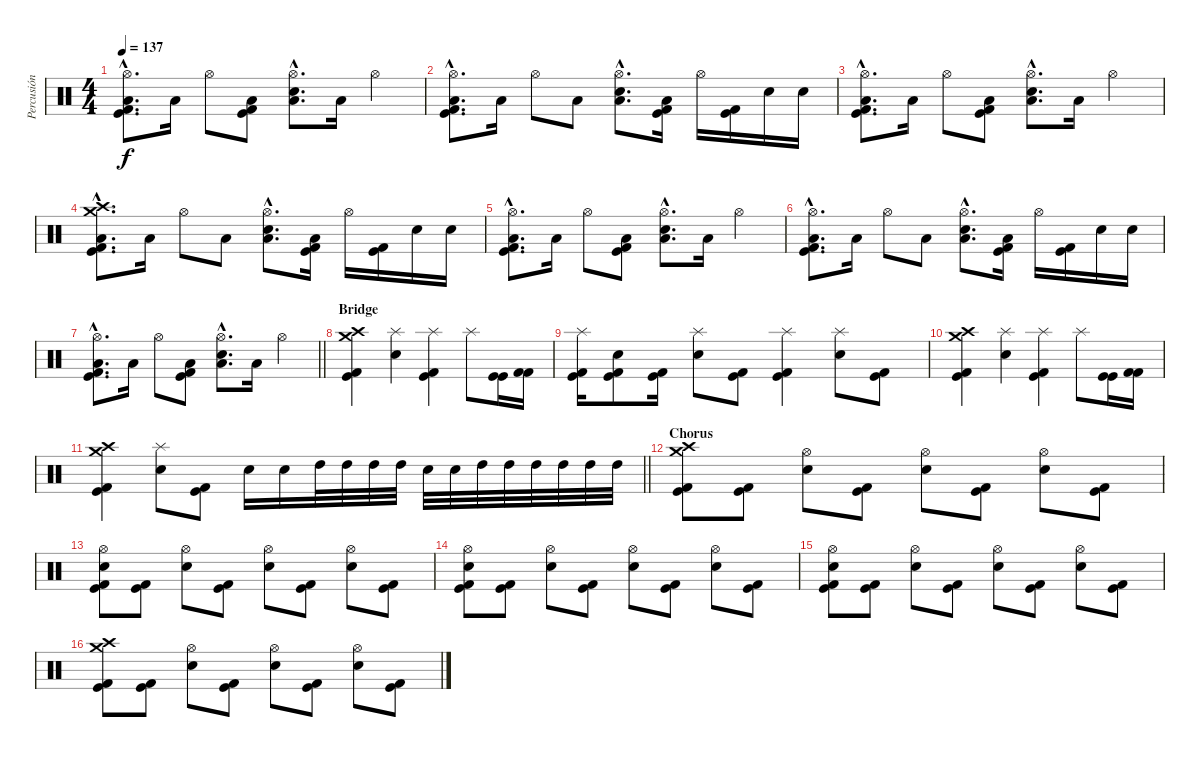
\track ("Percusión" "Percusión") {instrument percussion}
\staff {score}
\articulation defaults
\ts (4 4)
\tempo 137
\clef neutral
\ks c
("Hi-Hat (open)"{hac} "Low Floor Tom (hit)"{hac} "Kick (hit) 2"{hac} "Kick (hit)"{hac}).8{d dy f} "Low Floor Tom (hit)".16 "Hi-Hat (open)".8 ("Low Floor Tom (hit)" "Kick (hit)" "Kick (hit) 2").8 ("Hi-Hat (open)"{hac} "Electric Snare (hit)"{hac} "Low Floor Tom (hit)"{hac}).8{d} "Low Floor Tom (hit)".16 "Hi-Hat (open)".4 |
("Hi-Hat (open)"{hac} "Low Floor Tom (hit)"{hac} "Kick (hit) 2"{hac} "Kick (hit)"{hac}).8{d} "Low Floor Tom (hit)".16 "Hi-Hat (open)".8 "Low Floor Tom (hit)".8 ("Hi-Hat (open)"{hac} "Electric Snare (hit)"{hac} "Low Floor Tom (hit)"{hac}).8{d} ("Low Floor Tom (hit)" "Kick (hit)" "Kick (hit) 2").16 "Hi-Hat (open)".16 ("Kick (hit) 2" "Kick (hit)").16 "Electric Snare (hit)".16 "Electric Snare (hit)".16 |
("Hi-Hat (open)"{hac} "Low Floor Tom (hit)"{hac} "Kick (hit) 2"{hac} "Kick (hit)"{hac}).8{d} "Low Floor Tom (hit)".16 "Hi-Hat (open)".8 ("Low Floor Tom (hit)" "Kick (hit)" "Kick (hit) 2").8 ("Hi-Hat (open)"{hac} "Electric Snare (hit)"{hac} "Low Floor Tom (hit)"{hac}).8{d} "Low Floor Tom (hit)".16 "Hi-Hat (open)".4 |
("Crash medium (hit)"{hac} "Crash high (hit)"{hac} "Low Floor Tom (hit)"{hac} "Kick (hit) 2"{hac} "Kick (hit)"{hac}).8{d} "Low Floor Tom (hit)".16 "Hi-Hat (open)".8 "Low Floor Tom (hit)".8 ("Hi-Hat (open)"{hac} "Electric Snare (hit)"{hac} "Low Floor Tom (hit)"{hac}).8{d} ("Low Floor Tom (hit)" "Kick (hit)" "Kick (hit) 2").16 "Hi-Hat (open)".16 ("Kick (hit) 2" "Kick (hit)").16 "Electric Snare (hit)".16 "Electric Snare (hit)".16 |
("Hi-Hat (open)"{hac} "Low Floor Tom (hit)"{hac} "Kick (hit) 2"{hac} "Kick (hit)"{hac}).8{d} "Low Floor Tom (hit)".16 "Hi-Hat (open)".8 ("Low Floor Tom (hit)" "Kick (hit)" "Kick (hit) 2").8 ("Hi-Hat (open)"{hac} "Electric Snare (hit)"{hac} "Low Floor Tom (hit)"{hac}).8{d} "Low Floor Tom (hit)".16 "Hi-Hat (open)".4 |
("Hi-Hat (open)"{hac} "Low Floor Tom (hit)"{hac} "Kick (hit) 2"{hac} "Kick (hit)"{hac}).8{d} "Low Floor Tom (hit)".16 "Hi-Hat (open)".8 "Low Floor Tom (hit)".8 ("Hi-Hat (open)"{hac} "Electric Snare (hit)"{hac} "Low Floor Tom (hit)"{hac}).8{d} ("Low Floor Tom (hit)" "Kick (hit)" "Kick (hit) 2").16 "Hi-Hat (open)".16 ("Kick (hit) 2" "Kick (hit)").16 "Electric Snare (hit)".16 "Electric Snare (hit)".16 |
\barLineRight lightlight
("Hi-Hat (open)"{hac} "Low Floor Tom (hit)"{hac} "Kick (hit) 2"{hac} "Kick (hit)"{hac}).8{d} "Low Floor Tom (hit)".16 "Hi-Hat (open)".8 ("Low Floor Tom (hit)" "Kick (hit)" "Kick (hit) 2").8 ("Hi-Hat (open)"{hac} "Electric Snare (hit)"{hac} "Low Floor Tom (hit)"{hac}).8{d} "Low Floor Tom (hit)".16 "Hi-Hat (open)".4 |
\section ("" "Bridge")
("Crash medium (hit)" "Crash high (hit)" "Kick (hit)" "Kick (hit) 2").4 ("Splash (hit)" "Electric Snare (hit)").4 ("Splash (hit)" "Kick (hit) 2" "Kick (hit)").4 "Splash (hit)".8 ("Kick (hit)" "Kick (hit)").16 ("Kick (hit) 2" "Kick (hit) 2").16 |
("Splash (hit)" "Kick (hit)" "Kick (hit) 2").16 ("Electric Snare (hit)" "Kick (hit) 2" "Kick (hit)").8 ("Kick (hit)" "Kick (hit) 2").16 ("Splash (hit)" "Electric Snare (hit)").8 ("Kick (hit)" "Kick (hit) 2").8 ("Splash (hit)" "Kick (hit)" "Kick (hit) 2").4 ("Splash (hit)" "Electric Snare (hit)").8 ("Kick (hit) 2" "Kick (hit)").8 |
("Crash medium (hit)" "Crash high (hit)" "Kick (hit)" "Kick (hit) 2").4 ("Splash (hit)" "Electric Snare (hit)").4 ("Splash (hit)" "Kick (hit) 2" "Kick (hit)").4 "Splash (hit)".8 ("Kick (hit)" "Kick (hit)").16 ("Kick (hit) 2" "Kick (hit) 2").16 |
\barLineRight lightlight
("Crash medium (hit)" "Crash high (hit)" "Kick (hit)" "Kick (hit) 2").4 ("Splash (hit)" "Electric Snare (hit)").8 ("Kick (hit)" "Kick (hit) 2").8 "Electric Snare (hit)".16 "Electric Snare (hit)".16 "High Tom (hit)".32 "High Tom (hit)".32 "High Tom (hit)".32 "High Tom (hit)".32 "Electric Snare (hit)".32 "Electric Snare (hit)".32 "High Tom (hit)".32 "High Tom (hit)".32 "High Tom (hit)".32 "High Tom (hit)".32 "High Tom (hit)".32 "High Tom (hit)".32 |
\section ("" "Chorus")
("Crash medium (hit)" "Crash high (hit)" "Kick (hit) 2" "Kick (hit)").8 ("Kick (hit)" "Kick (hit) 2").8 ("Hi-Hat (open)" "Electric Snare (hit)").8 ("Kick (hit)" "Kick (hit) 2").8 ("Hi-Hat (open)" "Electric Snare (hit)").8 ("Kick (hit)" "Kick (hit) 2").8 ("Hi-Hat (open)" "Electric Snare (hit)").8 ("Kick (hit) 2" "Kick (hit)").8 |
("Hi-Hat (open)" "Electric Snare (hit)" "Kick (hit) 2" "Kick (hit)").8 ("Kick (hit)" "Kick (hit) 2").8 ("Hi-Hat (open)" "Electric Snare (hit)").8 ("Kick (hit)" "Kick (hit) 2").8 ("Hi-Hat (open)" "Electric Snare (hit)").8 ("Kick (hit)" "Kick (hit) 2").8 ("Hi-Hat (open)" "Electric Snare (hit)").8 ("Kick (hit) 2" "Kick (hit)").8 |
("Hi-Hat (open)" "Electric Snare (hit)" "Kick (hit) 2" "Kick (hit)").8 ("Kick (hit)" "Kick (hit) 2").8 ("Hi-Hat (open)" "Electric Snare (hit)").8 ("Kick (hit)" "Kick (hit) 2").8 ("Hi-Hat (open)" "Electric Snare (hit)").8 ("Kick (hit)" "Kick (hit) 2").8 ("Hi-Hat (open)" "Electric Snare (hit)").8 ("Kick (hit) 2" "Kick (hit)").8 |
("Hi-Hat (open)" "Electric Snare (hit)" "Kick (hit) 2" "Kick (hit)").8 ("Kick (hit)" "Kick (hit) 2").8 ("Hi-Hat (open)" "Electric Snare (hit)").8 ("Kick (hit)" "Kick (hit) 2").8 ("Hi-Hat (open)" "Electric Snare (hit)").8 ("Kick (hit)" "Kick (hit) 2").8 ("Hi-Hat (open)" "Electric Snare (hit)").8 ("Kick (hit) 2" "Kick (hit)").8 |
("Crash medium (hit)" "Crash high (hit)" "Kick (hit) 2" "Kick (hit)").8 ("Kick (hit)" "Kick (hit) 2").8 ("Hi-Hat (open)" "Electric Snare (hit)").8 ("Kick (hit)" "Kick (hit) 2").8 ("Hi-Hat (open)" "Electric Snare (hit)").8 ("Kick (hit)" "Kick (hit) 2").8 ("Hi-Hat (open)" "Electric Snare (hit)").8 ("Kick (hit) 2" "Kick (hit)").8
